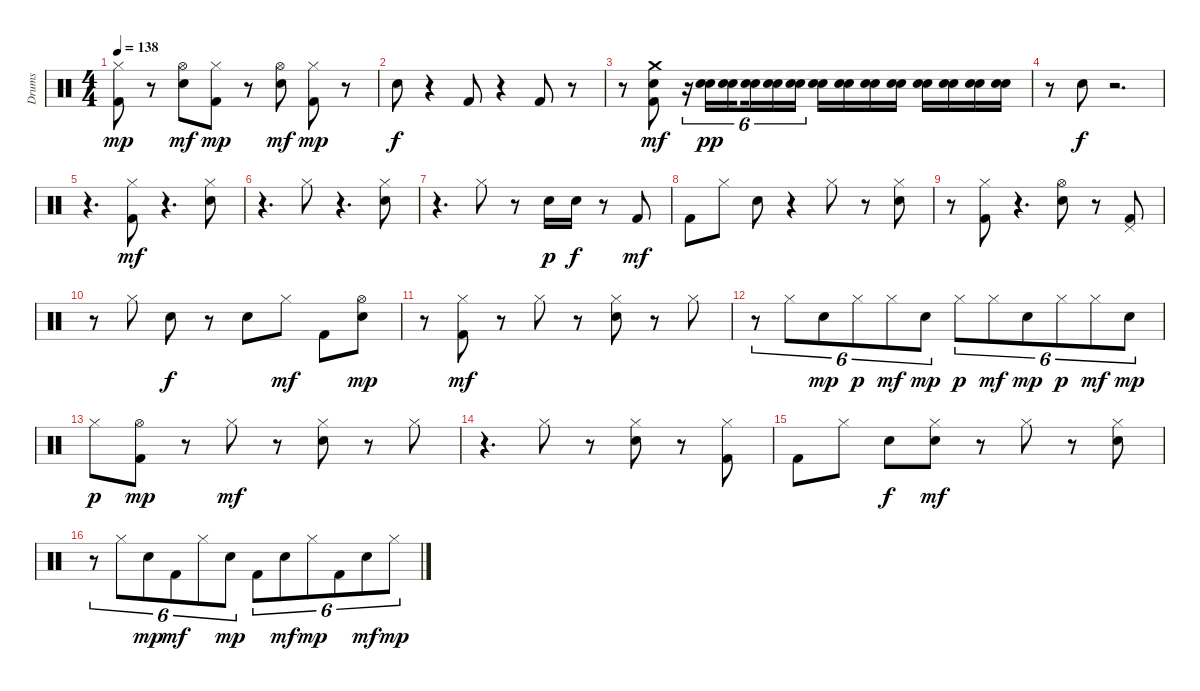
\track ("Drums" "Drums") {instrument percussion}
\staff {score}
\articulation defaults
\ts (4 4)
\tempo 138
\clef neutral
\ks c
("Kick (hit) 2" "Hi-Hat (closed)").8{dy mp} r.8 ("Electric Snare (hit)" "Hi-Hat (open)").8{dy mf} ("Kick (hit) 2" "Hi-Hat (closed)").8{dy mp} r.8 ("Electric Snare (hit)" "Hi-Hat (open)").8{dy mf} ("Kick (hit) 2" "Hi-Hat (closed)").8{dy mp} r.8 |
"Electric Snare (hit)".8{dy f} r.4 "Kick (hit) 2".8 r.4 "Kick (hit) 2".8 r.8 |
r.8 ("Kick (hit) 2" "Electric Snare (hit)" "Crash medium (hit)").8{dy mf} r.16{tu (6 4)} ("Snare (hit) 2" "Electric Snare (hit)").16{tu (6 4) dy pp} ("Snare (hit) 2" "Electric Snare (hit)").16{tu (6 4) beam splitsecondary} ("Snare (hit) 2" "Electric Snare (hit)").16{tu (6 4)} ("Snare (hit) 2" "Electric Snare (hit)").16{tu (6 4)} ("Snare (hit) 2" "Electric Snare (hit)").16{tu (6 4)} ("Snare (hit) 2" "Electric Snare (hit)").16 ("Snare (hit) 2" "Electric Snare (hit)").16 ("Snare (hit) 2" "Electric Snare (hit)").16 ("Snare (hit) 2" "Electric Snare (hit)").16 ("Snare (hit) 2" "Electric Snare (hit)").16 ("Snare (hit) 2" "Electric Snare (hit)").16 ("Snare (hit) 2" "Electric Snare (hit)").16 ("Snare (hit) 2" "Electric Snare (hit)").16 |
r.8 "Electric Snare (hit)".8{dy f} r.2{d} |
r.4{d} ("Kick (hit) 2" "Hi-Hat (closed)").8{dy mf} r.4{d} ("Electric Snare (hit)" "Hi-Hat (closed)").8 |
r.4{d} "Hi-Hat (closed)".8 r.4{d} ("Electric Snare (hit)" "Hi-Hat (closed)").8 |
r.4{d} "Hi-Hat (closed)".8 r.8 "Electric Snare (hit)".16{dy p} "Electric Snare (hit)".16{dy f} r.8 "Kick (hit) 2".8{dy mf} |
"Kick (hit) 2".8 "Hi-Hat (closed)".8 "Electric Snare (hit)".8 r.4 "Hi-Hat (closed)".8 r.8 ("Electric Snare (hit)" "Hi-Hat (closed)").8 |
r.8 ("Kick (hit) 2" "Hi-Hat (closed)").8 r.4{d} ("Electric Snare (hit)" "Hi-Hat (open)").8 r.8 ("Kick (hit) 2" "Pedal Hi-Hat (hit)").8 |
r.8 "Hi-Hat (closed)".8 "Electric Snare (hit)".8{dy f} r.8 "Electric Snare (hit)".8 "Hi-Hat (closed)".8{dy mf} "Kick (hit) 2".8 ("Electric Snare (hit)" "Hi-Hat (open)").8{dy mp} |
r.8 ("Kick (hit) 2" "Hi-Hat (closed)").8{dy mf} r.8 "Hi-Hat (closed)".8 r.8 ("Electric Snare (hit)" "Hi-Hat (closed)").8 r.8 "Hi-Hat (closed)".8 |
r.8{tu (6 4)} "Hi-Hat (closed)".8{tu (6 4)} "Electric Snare (hit)".8{tu (6 4) dy mp} "Hi-Hat (closed)".8{tu (6 4) dy p} "Hi-Hat (closed)".8{tu (6 4) dy mf} "Electric Snare (hit)".8{tu (6 4) dy mp} "Hi-Hat (closed)".8{tu (6 4) dy p} "Hi-Hat (closed)".8{tu (6 4) dy mf} "Electric Snare (hit)".8{tu (6 4) dy mp} "Hi-Hat (closed)".8{tu (6 4) dy p} "Hi-Hat (closed)".8{tu (6 4) dy mf} "Electric Snare (hit)".8{tu (6 4) dy mp} |
"Hi-Hat (closed)".8{dy p} ("Kick (hit) 2" "Hi-Hat (open)").8{dy mp} r.8 "Hi-Hat (closed)".8{dy mf} r.8 ("Electric Snare (hit)" "Hi-Hat (closed)").8 r.8 "Hi-Hat (closed)".8 |
r.4{d} "Hi-Hat (closed)".8 r.8 ("Electric Snare (hit)" "Hi-Hat (closed)").8 r.8 ("Kick (hit) 2" "Hi-Hat (closed)").8 |
"Kick (hit) 2".8 "Hi-Hat (closed)".8 "Electric Snare (hit)".8{dy f} ("Electric Snare (hit)" "Hi-Hat (closed)").8{dy mf} r.8 "Hi-Hat (closed)".8 r.8 ("Electric Snare (hit)" "Hi-Hat (closed)").8 |
r.8{tu (6 4)} "Hi-Hat (closed)".8{tu (6 4)} "Electric Snare (hit)".8{tu (6 4) dy mp} "Kick (hit) 2".8{tu (6 4) dy mf} "Hi-Hat (closed)".8{tu (6 4)} "Electric Snare (hit)".8{tu (6 4) dy mp} "Kick (hit) 2".8{tu (6 4)} "Electric Snare (hit)".8{tu (6 4) dy mf} "Hi-Hat (closed)".8{tu (6 4) dy mp} "Kick (hit) 2".8{tu (6 4)} "Electric Snare (hit)".8{tu (6 4) dy mf} "Hi-Hat (closed)".8{tu (6 4) dy mp}
